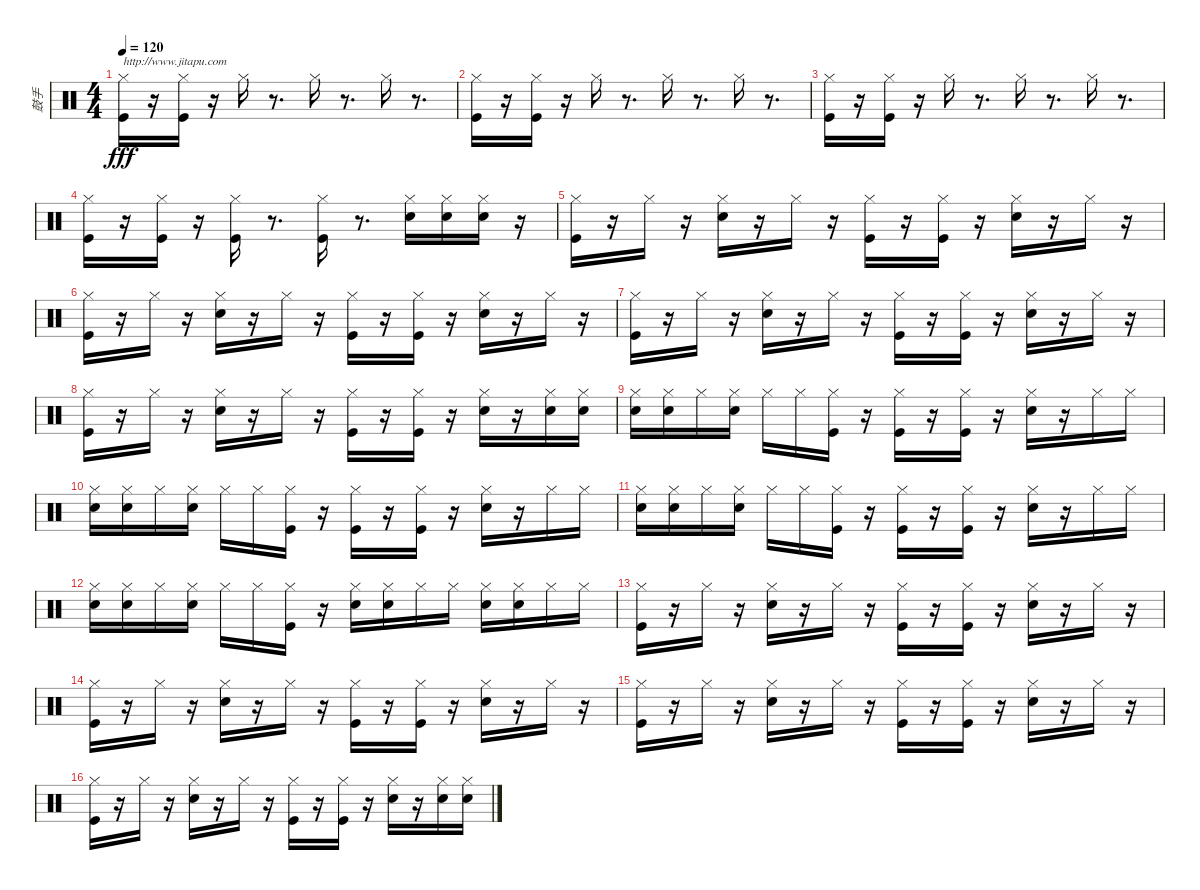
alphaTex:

\track ("鼓手" "鼓手") {instrument percussion}
\staff {score}
\articulation defaults
\ts (4 4)
\tempo 120
\clef neutral
\ks c
("Kick (hit)" "Hi-Hat (closed)").16{txt "http://www.jitapu.com" dy fff} r.16 ("Kick (hit)" "Hi-Hat (closed)").16 r.16 "Hi-Hat (closed)".16 r.8{d} "Hi-Hat (closed)".16 r.8{d} "Hi-Hat (closed)".16 r.8{d} |
("Kick (hit)" "Hi-Hat (closed)").16 r.16 ("Kick (hit)" "Hi-Hat (closed)").16 r.16 "Hi-Hat (closed)".16 r.8{d} "Hi-Hat (closed)".16 r.8{d} "Hi-Hat (closed)".16 r.8{d} |
("Kick (hit)" "Hi-Hat (closed)").16 r.16 ("Kick (hit)" "Hi-Hat (closed)").16 r.16 "Hi-Hat (closed)".16 r.8{d} "Hi-Hat (closed)".16 r.8{d} "Hi-Hat (closed)".16 r.8{d} |
("Kick (hit)" "Hi-Hat (closed)").16 r.16 ("Kick (hit)" "Hi-Hat (closed)").16 r.16 ("Kick (hit)" "Hi-Hat (closed)").16 r.8{d} ("Kick (hit)" "Hi-Hat (closed)").16 r.8{d} ("Snare (hit) 2" "Hi-Hat (closed)").16 ("Snare (hit) 2" "Hi-Hat (closed)").16 ("Snare (hit) 2" "Hi-Hat (closed)").16 r.16 |
("Kick (hit)" "Hi-Hat (closed)").16 r.16 "Hi-Hat (closed)".16 r.16 ("Snare (hit) 2" "Hi-Hat (closed)").16 r.16 "Hi-Hat (closed)".16 r.16 ("Kick (hit)" "Hi-Hat (closed)").16 r.16 ("Kick (hit)" "Hi-Hat (closed)").16 r.16 ("Snare (hit) 2" "Hi-Hat (closed)").16 r.16 "Hi-Hat (closed)".16 r.16 |
("Kick (hit)" "Hi-Hat (closed)").16 r.16 "Hi-Hat (closed)".16 r.16 ("Snare (hit) 2" "Hi-Hat (closed)").16 r.16 "Hi-Hat (closed)".16 r.16 ("Kick (hit)" "Hi-Hat (closed)").16 r.16 ("Kick (hit)" "Hi-Hat (closed)").16 r.16 ("Snare (hit) 2" "Hi-Hat (closed)").16 r.16 "Hi-Hat (closed)".16 r.16 |
("Kick (hit)" "Hi-Hat (closed)").16 r.16 "Hi-Hat (closed)".16 r.16 ("Snare (hit) 2" "Hi-Hat (closed)").16 r.16 "Hi-Hat (closed)".16 r.16 ("Kick (hit)" "Hi-Hat (closed)").16 r.16 ("Kick (hit)" "Hi-Hat (closed)").16 r.16 ("Snare (hit) 2" "Hi-Hat (closed)").16 r.16 "Hi-Hat (closed)".16 r.16 |
("Kick (hit)" "Hi-Hat (closed)").16 r.16 "Hi-Hat (closed)".16 r.16 ("Snare (hit) 2" "Hi-Hat (closed)").16 r.16 "Hi-Hat (closed)".16 r.16 ("Kick (hit)" "Hi-Hat (closed)").16 r.16 ("Kick (hit)" "Hi-Hat (closed)").16 r.16 ("Snare (hit) 2" "Hi-Hat (closed)").16 r.16 ("Snare (hit) 2" "Hi-Hat (closed)").16 ("Snare (hit) 2" "Hi-Hat (closed)").16 |
("Snare (hit) 2" "Hi-Hat (closed)").16 ("Snare (hit) 2" "Hi-Hat (closed)").16 "Hi-Hat (closed)".16 ("Snare (hit) 2" "Hi-Hat (closed)").16 "Hi-Hat (closed)".16 "Hi-Hat (closed)".16 ("Kick (hit)" "Hi-Hat (closed)").16 r.16 ("Kick (hit)" "Hi-Hat (closed)").16 r.16 ("Kick (hit)" "Hi-Hat (closed)").16 r.16 ("Snare (hit) 2" "Hi-Hat (closed)").16 r.16 "Hi-Hat (closed)".16 "Hi-Hat (closed)".16 |
("Snare (hit) 2" "Hi-Hat (closed)").16 ("Snare (hit) 2" "Hi-Hat (closed)").16 "Hi-Hat (closed)".16 ("Snare (hit) 2" "Hi-Hat (closed)").16 "Hi-Hat (closed)".16 "Hi-Hat (closed)".16 ("Kick (hit)" "Hi-Hat (closed)").16 r.16 ("Kick (hit)" "Hi-Hat (closed)").16 r.16 ("Kick (hit)" "Hi-Hat (closed)").16 r.16 ("Snare (hit) 2" "Hi-Hat (closed)").16 r.16 "Hi-Hat (closed)".16 "Hi-Hat (closed)".16 |
("Snare (hit) 2" "Hi-Hat (closed)").16 ("Snare (hit) 2" "Hi-Hat (closed)").16 "Hi-Hat (closed)".16 ("Snare (hit) 2" "Hi-Hat (closed)").16 "Hi-Hat (closed)".16 "Hi-Hat (closed)".16 ("Kick (hit)" "Hi-Hat (closed)").16 r.16 ("Kick (hit)" "Hi-Hat (closed)").16 r.16 ("Kick (hit)" "Hi-Hat (closed)").16 r.16 ("Snare (hit) 2" "Hi-Hat (closed)").16 r.16 "Hi-Hat (closed)".16 "Hi-Hat (closed)".16 |
("Snare (hit) 2" "Hi-Hat (closed)").16 ("Snare (hit) 2" "Hi-Hat (closed)").16 "Hi-Hat (closed)".16 ("Snare (hit) 2" "Hi-Hat (closed)").16 "Hi-Hat (closed)".16 "Hi-Hat (closed)".16 ("Kick (hit)" "Hi-Hat (closed)").16 r.16 ("Snare (hit) 2" "Hi-Hat (closed)").16 ("Snare (hit) 2" "Hi-Hat (closed)").16 "Hi-Hat (closed)".16 "Hi-Hat (closed)".16 ("Snare (hit) 2" "Hi-Hat (closed)").16 ("Snare (hit) 2" "Hi-Hat (closed)").16 "Hi-Hat (closed)".16 "Hi-Hat (closed)".16 |
("Kick (hit)" "Hi-Hat (closed)").16 r.16 "Hi-Hat (closed)".16 r.16 ("Snare (hit) 2" "Hi-Hat (closed)").16 r.16 "Hi-Hat (closed)".16 r.16 ("Kick (hit)" "Hi-Hat (closed)").16 r.16 ("Kick (hit)" "Hi-Hat (closed)").16 r.16 ("Snare (hit) 2" "Hi-Hat (closed)").16 r.16 "Hi-Hat (closed)".16 r.16 |
("Kick (hit)" "Hi-Hat (closed)").16 r.16 "Hi-Hat (closed)".16 r.16 ("Snare (hit) 2" "Hi-Hat (closed)").16 r.16 "Hi-Hat (closed)".16 r.16 ("Kick (hit)" "Hi-Hat (closed)").16 r.16 ("Kick (hit)" "Hi-Hat (closed)").16 r.16 ("Snare (hit) 2" "Hi-Hat (closed)").16 r.16 "Hi-Hat (closed)".16 r.16 |
("Kick (hit)" "Hi-Hat (closed)").16 r.16 "Hi-Hat (closed)".16 r.16 ("Snare (hit) 2" "Hi-Hat (closed)").16 r.16 "Hi-Hat (closed)".16 r.16 ("Kick (hit)" "Hi-Hat (closed)").16 r.16 ("Kick (hit)" "Hi-Hat (closed)").16 r.16 ("Snare (hit) 2" "Hi-Hat (closed)").16 r.16 "Hi-Hat (closed)".16 r.16 |
("Kick (hit)" "Hi-Hat (closed)").16 r.16 "Hi-Hat (closed)".16 r.16 ("Snare (hit) 2" "Hi-Hat (closed)").16 r.16 "Hi-Hat (closed)".16 r.16 ("Kick (hit)" "Hi-Hat (closed)").16 r.16 ("Kick (hit)" "Hi-Hat (closed)").16 r.16 ("Snare (hit) 2" "Hi-Hat (closed)").16 r.16 ("Snare (hit) 2" "Hi-Hat (closed)").16 ("Snare (hit) 2" "Hi-Hat (closed)").16
